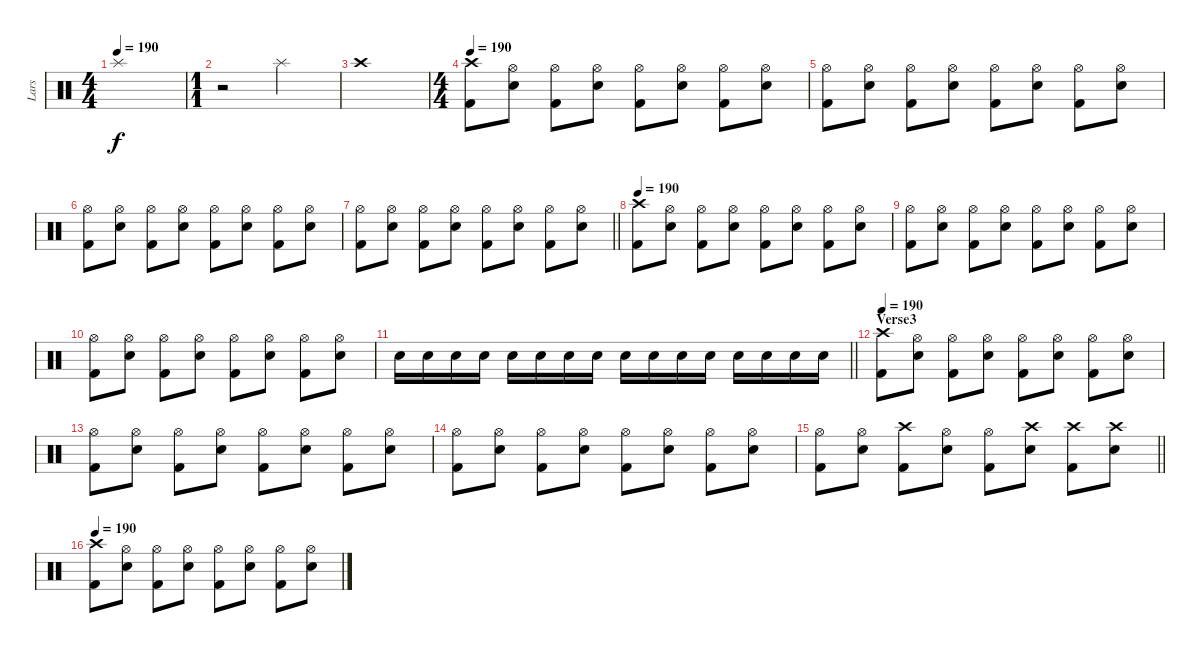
\track ("Lars" "Lars") {instrument percussion}
\staff {score}
\articulation defaults
\ts (4 4)
\tempo 190
\clef neutral
\ks c "Splash (hit)".1{dy f}
|
\ts (1 1)
r.2 "Splash (hit)".2 |
"Crash high (hit)".1 |
\ts (4 4)
\tempo 190
("Crash high (hit)" "Kick (hit) 2").8 ("Hi-Hat (open)" "Snare (hit) 2").8 ("Hi-Hat (open)" "Kick (hit) 2").8 ("Hi-Hat (open)" "Snare (hit) 2").8 ("Hi-Hat (open)" "Kick (hit) 2").8 ("Hi-Hat (open)" "Snare (hit) 2").8 ("Hi-Hat (open)" "Kick (hit) 2").8 ("Hi-Hat (open)" "Snare (hit) 2").8 |
("Hi-Hat (open)" "Kick (hit) 2").8 ("Hi-Hat (open)" "Snare (hit) 2").8 ("Hi-Hat (open)" "Kick (hit) 2").8 ("Hi-Hat (open)" "Snare (hit) 2").8 ("Hi-Hat (open)" "Kick (hit) 2").8 ("Hi-Hat (open)" "Snare (hit) 2").8 ("Hi-Hat (open)" "Kick (hit) 2").8 ("Hi-Hat (open)" "Snare (hit) 2").8 |
("Hi-Hat (open)" "Kick (hit) 2").8 ("Hi-Hat (open)" "Snare (hit) 2").8 ("Hi-Hat (open)" "Kick (hit) 2").8 ("Hi-Hat (open)" "Snare (hit) 2").8 ("Hi-Hat (open)" "Kick (hit) 2").8 ("Hi-Hat (open)" "Snare (hit) 2").8 ("Hi-Hat (open)" "Kick (hit) 2").8 ("Hi-Hat (open)" "Snare (hit) 2").8 |
\barLineRight lightlight
("Hi-Hat (open)" "Kick (hit) 2").8 ("Hi-Hat (open)" "Snare (hit) 2").8 ("Hi-Hat (open)" "Kick (hit) 2").8 ("Hi-Hat (open)" "Snare (hit) 2").8 ("Hi-Hat (open)" "Kick (hit) 2").8 ("Hi-Hat (open)" "Snare (hit) 2").8 ("Hi-Hat (open)" "Kick (hit) 2").8 ("Hi-Hat (open)" "Snare (hit) 2").8 |
\tempo 190
("Crash high (hit)" "Kick (hit) 2").8 ("Hi-Hat (open)" "Snare (hit) 2").8 ("Hi-Hat (open)" "Kick (hit) 2").8 ("Hi-Hat (open)" "Snare (hit) 2").8 ("Hi-Hat (open)" "Kick (hit) 2").8 ("Hi-Hat (open)" "Snare (hit) 2").8 ("Hi-Hat (open)" "Kick (hit) 2").8 ("Hi-Hat (open)" "Snare (hit) 2").8 |
("Hi-Hat (open)" "Kick (hit) 2").8 ("Hi-Hat (open)" "Snare (hit) 2").8 ("Hi-Hat (open)" "Kick (hit) 2").8 ("Hi-Hat (open)" "Snare (hit) 2").8 ("Hi-Hat (open)" "Kick (hit) 2").8 ("Hi-Hat (open)" "Snare (hit) 2").8 ("Hi-Hat (open)" "Kick (hit) 2").8 ("Hi-Hat (open)" "Snare (hit) 2").8 |
("Hi-Hat (open)" "Kick (hit) 2").8 ("Hi-Hat (open)" "Snare (hit) 2").8 ("Hi-Hat (open)" "Kick (hit) 2").8 ("Hi-Hat (open)" "Snare (hit) 2").8 ("Hi-Hat (open)" "Kick (hit) 2").8 ("Hi-Hat (open)" "Snare (hit) 2").8 ("Hi-Hat (open)" "Kick (hit) 2").8 ("Hi-Hat (open)" "Snare (hit) 2").8 |
\barLineRight lightlight "Snare (hit) 2".16 "Snare (hit) 2".16 "Snare (hit) 2".16 "Snare (hit) 2".16 "Snare (hit) 2".16 "Snare (hit) 2".16 "Snare (hit) 2".16 "Snare (hit) 2".16 "Snare (hit) 2".16 "Snare (hit) 2".16 "Snare (hit) 2".16 "Snare (hit) 2".16 "Snare (hit) 2".16 "Snare (hit) 2".16 "Snare (hit) 2".16 "Snare (hit) 2".16
|
\section ("" "Verse3")
\tempo 190
("Crash high (hit)" "Kick (hit) 2").8 ("Hi-Hat (open)" "Snare (hit) 2").8 ("Hi-Hat (open)" "Kick (hit) 2").8 ("Hi-Hat (open)" "Snare (hit) 2").8 ("Hi-Hat (open)" "Kick (hit) 2").8 ("Hi-Hat (open)" "Snare (hit) 2").8 ("Hi-Hat (open)" "Kick (hit) 2").8 ("Hi-Hat (open)" "Snare (hit) 2").8 |
("Hi-Hat (open)" "Kick (hit) 2").8 ("Hi-Hat (open)" "Snare (hit) 2").8 ("Hi-Hat (open)" "Kick (hit) 2").8 ("Hi-Hat (open)" "Snare (hit) 2").8 ("Hi-Hat (open)" "Kick (hit) 2").8 ("Hi-Hat (open)" "Snare (hit) 2").8 ("Hi-Hat (open)" "Kick (hit) 2").8 ("Hi-Hat (open)" "Snare (hit) 2").8 |
("Hi-Hat (open)" "Kick (hit) 2").8 ("Hi-Hat (open)" "Snare (hit) 2").8 ("Hi-Hat (open)" "Kick (hit) 2").8 ("Hi-Hat (open)" "Snare (hit) 2").8 ("Hi-Hat (open)" "Kick (hit) 2").8 ("Hi-Hat (open)" "Snare (hit) 2").8 ("Hi-Hat (open)" "Kick (hit) 2").8 ("Hi-Hat (open)" "Snare (hit) 2").8 |
\barLineRight lightlight
("Hi-Hat (open)" "Kick (hit) 2").8 ("Hi-Hat (open)" "Snare (hit) 2").8 ("Crash high (hit)" "Kick (hit) 2").8 ("Hi-Hat (open)" "Snare (hit) 2").8 ("Hi-Hat (open)" "Kick (hit) 2").8 ("Crash high (hit)" "Snare (hit) 2").8 ("Crash high (hit)" "Kick (hit) 2").8 ("Crash high (hit)" "Snare (hit) 2").8 |
\tempo 190
("Crash high (hit)" "Kick (hit) 2").8 ("Hi-Hat (open)" "Snare (hit) 2").8 ("Hi-Hat (open)" "Kick (hit) 2").8 ("Hi-Hat (open)" "Snare (hit) 2").8 ("Hi-Hat (open)" "Kick (hit) 2").8 ("Hi-Hat (open)" "Snare (hit) 2").8 ("Hi-Hat (open)" "Kick (hit) 2").8 ("Hi-Hat (open)" "Snare (hit) 2").8
